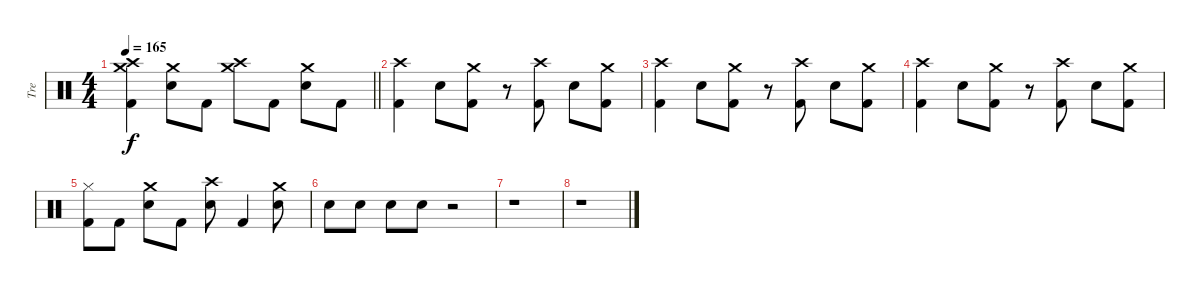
\track ("Tre" "Tre") {instrument percussion}
\staff {score}
\articulation defaults
\ts (4 4)
\tempo 165
\clef neutral
\barLineRight lightlight
\ks c
("Crash medium (hit)" "Crash high (hit)" "Kick (hit) 2").4{dy f} ("Crash medium (hit)" "Snare (hit) 2").8 "Kick (hit) 2".8 ("Crash medium (hit)" "Crash high (hit)").8 "Kick (hit) 2".8 ("Crash medium (hit)" "Snare (hit) 2").8 "Kick (hit) 2".8 |
("Crash high (hit)" "Kick (hit) 2").4 "Snare (hit) 2".8 ("Crash medium (hit)" "Kick (hit) 2").8 r.8 ("Crash high (hit)" "Kick (hit) 2").8 "Snare (hit) 2".8 ("Crash medium (hit)" "Kick (hit) 2").8 |
("Crash high (hit)" "Kick (hit) 2").4 "Snare (hit) 2".8 ("Crash medium (hit)" "Kick (hit) 2").8 r.8 ("Crash high (hit)" "Kick (hit) 2").8 "Snare (hit) 2".8 ("Crash medium (hit)" "Kick (hit) 2").8 |
("Crash high (hit)" "Kick (hit) 2").4 "Snare (hit) 2".8 ("Crash medium (hit)" "Kick (hit) 2").8 r.8 ("Crash high (hit)" "Kick (hit) 2").8 "Snare (hit) 2".8 ("Crash medium (hit)" "Kick (hit) 2").8 |
("Hi-Hat (closed)" "Kick (hit) 2").8 "Kick (hit) 2".8 ("Crash medium (hit)" "Snare (hit) 2").8 "Kick (hit) 2".8 ("Crash high (hit)" "Snare (hit) 2").8 "Kick (hit) 2".4 ("Crash medium (hit)" "Snare (hit) 2").8 |
"Snare (hit) 2".8 "Snare (hit) 2".8 "Snare (hit) 2".8 "Snare (hit) 2".8 r.2 |
r.1 |
r.1
